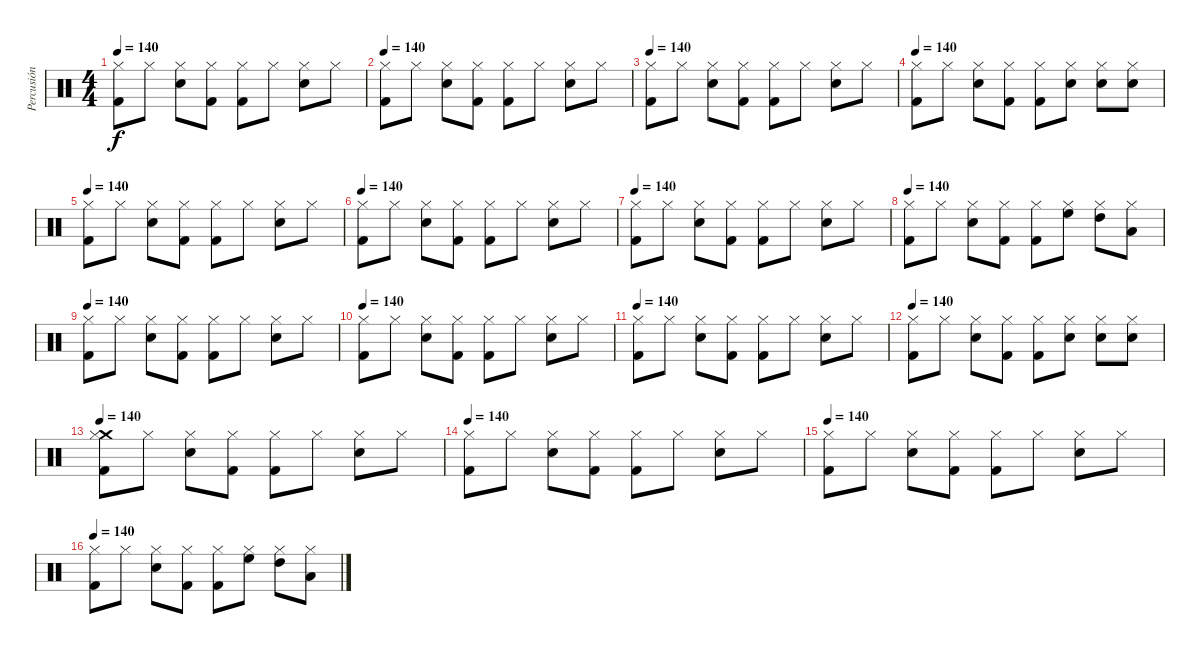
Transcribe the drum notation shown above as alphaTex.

\track ("Percusión" "Percusión") {instrument percussion}
\staff {score}
\articulation defaults
\ts (4 4)
\tempo 140
\clef neutral
\ks c
("Kick (hit) 2" "Hi-Hat (closed)").8{dy f} "Hi-Hat (closed)".8 ("Snare (hit) 2" "Hi-Hat (closed)").8 ("Kick (hit) 2" "Hi-Hat (closed)").8 ("Kick (hit) 2" "Hi-Hat (closed)").8 "Hi-Hat (closed)".8 ("Snare (hit) 2" "Hi-Hat (closed)").8 "Hi-Hat (closed)".8 |
\tempo 140
("Kick (hit) 2" "Hi-Hat (closed)").8 "Hi-Hat (closed)".8 ("Snare (hit) 2" "Hi-Hat (closed)").8 ("Kick (hit) 2" "Hi-Hat (closed)").8 ("Kick (hit) 2" "Hi-Hat (closed)").8 "Hi-Hat (closed)".8 ("Snare (hit) 2" "Hi-Hat (closed)").8 "Hi-Hat (closed)".8 |
\tempo 140
("Kick (hit) 2" "Hi-Hat (closed)").8 "Hi-Hat (closed)".8 ("Snare (hit) 2" "Hi-Hat (closed)").8 ("Kick (hit) 2" "Hi-Hat (closed)").8 ("Kick (hit) 2" "Hi-Hat (closed)").8 "Hi-Hat (closed)".8 ("Snare (hit) 2" "Hi-Hat (closed)").8 "Hi-Hat (closed)".8 |
\tempo 140
("Kick (hit) 2" "Hi-Hat (closed)").8 "Hi-Hat (closed)".8 ("Snare (hit) 2" "Hi-Hat (closed)").8 ("Kick (hit) 2" "Hi-Hat (closed)").8 ("Kick (hit) 2" "Hi-Hat (closed)").8 ("Snare (hit) 2" "Hi-Hat (closed)").8 ("Snare (hit) 2" "Hi-Hat (closed)").8 ("Snare (hit) 2" "Hi-Hat (closed)").8 |
\tempo 140
("Kick (hit) 2" "Hi-Hat (closed)").8 "Hi-Hat (closed)".8 ("Snare (hit) 2" "Hi-Hat (closed)").8 ("Kick (hit) 2" "Hi-Hat (closed)").8 ("Kick (hit) 2" "Hi-Hat (closed)").8 "Hi-Hat (closed)".8 ("Snare (hit) 2" "Hi-Hat (closed)").8 "Hi-Hat (closed)".8 |
\tempo 140
("Kick (hit) 2" "Hi-Hat (closed)").8 "Hi-Hat (closed)".8 ("Snare (hit) 2" "Hi-Hat (closed)").8 ("Kick (hit) 2" "Hi-Hat (closed)").8 ("Kick (hit) 2" "Hi-Hat (closed)").8 "Hi-Hat (closed)".8 ("Snare (hit) 2" "Hi-Hat (closed)").8 "Hi-Hat (closed)".8 |
\tempo 140
("Kick (hit) 2" "Hi-Hat (closed)").8 "Hi-Hat (closed)".8 ("Snare (hit) 2" "Hi-Hat (closed)").8 ("Kick (hit) 2" "Hi-Hat (closed)").8 ("Kick (hit) 2" "Hi-Hat (closed)").8 "Hi-Hat (closed)".8 ("Snare (hit) 2" "Hi-Hat (closed)").8 "Hi-Hat (closed)".8 |
\tempo 140
("Kick (hit) 2" "Hi-Hat (closed)").8 "Hi-Hat (closed)".8 ("Snare (hit) 2" "Hi-Hat (closed)").8 ("Kick (hit) 2" "Hi-Hat (closed)").8 ("Kick (hit) 2" "Hi-Hat (closed)").8 ("High Floor Tom (hit)" "Hi-Hat (closed)").8 ("High Tom (hit)" "Hi-Hat (closed)").8 ("Low Tom (hit)" "Hi-Hat (closed)").8 |
\tempo 140
("Kick (hit) 2" "Hi-Hat (closed)").8 "Hi-Hat (closed)".8 ("Snare (hit) 2" "Hi-Hat (closed)").8 ("Kick (hit) 2" "Hi-Hat (closed)").8 ("Kick (hit) 2" "Hi-Hat (closed)").8 "Hi-Hat (closed)".8 ("Snare (hit) 2" "Hi-Hat (closed)").8 "Hi-Hat (closed)".8 |
\tempo 140
("Kick (hit) 2" "Hi-Hat (closed)").8 "Hi-Hat (closed)".8 ("Snare (hit) 2" "Hi-Hat (closed)").8 ("Kick (hit) 2" "Hi-Hat (closed)").8 ("Kick (hit) 2" "Hi-Hat (closed)").8 "Hi-Hat (closed)".8 ("Snare (hit) 2" "Hi-Hat (closed)").8 "Hi-Hat (closed)".8 |
\tempo 140
("Kick (hit) 2" "Hi-Hat (closed)").8 "Hi-Hat (closed)".8 ("Snare (hit) 2" "Hi-Hat (closed)").8 ("Kick (hit) 2" "Hi-Hat (closed)").8 ("Kick (hit) 2" "Hi-Hat (closed)").8 "Hi-Hat (closed)".8 ("Snare (hit) 2" "Hi-Hat (closed)").8 "Hi-Hat (closed)".8 |
\tempo 140
("Kick (hit) 2" "Hi-Hat (closed)").8 "Hi-Hat (closed)".8 ("Snare (hit) 2" "Hi-Hat (closed)").8 ("Kick (hit) 2" "Hi-Hat (closed)").8 ("Kick (hit) 2" "Hi-Hat (closed)").8 ("Snare (hit) 2" "Hi-Hat (closed)").8 ("Snare (hit) 2" "Hi-Hat (closed)").8 ("Snare (hit) 2" "Hi-Hat (closed)").8 |
\tempo 140
("Kick (hit) 2" "Crash medium (hit)" "Hi-Hat (closed)").8 "Hi-Hat (closed)".8 ("Snare (hit) 2" "Hi-Hat (closed)").8 ("Kick (hit) 2" "Hi-Hat (closed)").8 ("Kick (hit) 2" "Hi-Hat (closed)").8 "Hi-Hat (closed)".8 ("Snare (hit) 2" "Hi-Hat (closed)").8 "Hi-Hat (closed)".8 |
\tempo 140
("Kick (hit) 2" "Hi-Hat (closed)").8 "Hi-Hat (closed)".8 ("Snare (hit) 2" "Hi-Hat (closed)").8 ("Kick (hit) 2" "Hi-Hat (closed)").8 ("Kick (hit) 2" "Hi-Hat (closed)").8 "Hi-Hat (closed)".8 ("Snare (hit) 2" "Hi-Hat (closed)").8 "Hi-Hat (closed)".8 |
\tempo 140
("Kick (hit) 2" "Hi-Hat (closed)").8 "Hi-Hat (closed)".8 ("Snare (hit) 2" "Hi-Hat (closed)").8 ("Kick (hit) 2" "Hi-Hat (closed)").8 ("Kick (hit) 2" "Hi-Hat (closed)").8 "Hi-Hat (closed)".8 ("Snare (hit) 2" "Hi-Hat (closed)").8 "Hi-Hat (closed)".8 |
\tempo 140
("Kick (hit) 2" "Hi-Hat (closed)").8 "Hi-Hat (closed)".8 ("Snare (hit) 2" "Hi-Hat (closed)").8 ("Kick (hit) 2" "Hi-Hat (closed)").8 ("Kick (hit) 2" "Hi-Hat (closed)").8 ("High Floor Tom (hit)" "Hi-Hat (closed)").8 ("High Tom (hit)" "Hi-Hat (closed)").8 ("Low Tom (hit)" "Hi-Hat (closed)").8
